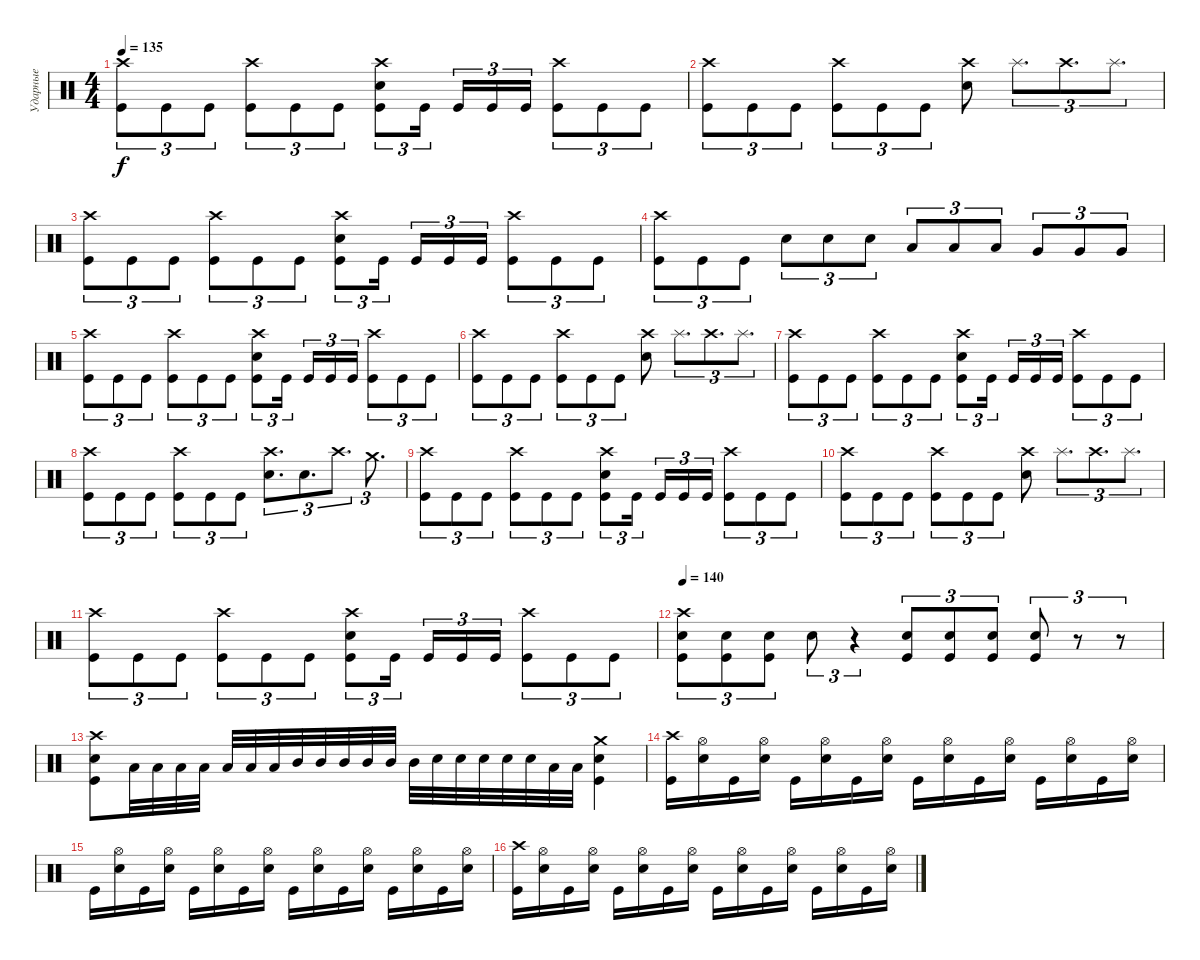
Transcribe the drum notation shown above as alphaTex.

\track ("Ударные" "Ударные") {instrument percussion}
\staff {score}
\articulation defaults
\ts (4 4)
\tempo 135
\clef neutral
\ks c
("Crash high (hit)" "Kick (hit)").8{tu (3 2) dy f} "Kick (hit)".8{tu (3 2)} "Kick (hit)".8{tu (3 2)} ("Crash high (hit)" "Kick (hit)").8{tu (3 2)} "Kick (hit)".8{tu (3 2)} "Kick (hit)".8{tu (3 2)} ("Crash high (hit)" "Snare (hit) 2" "Kick (hit)").8{tu (3 2)} "Kick (hit)".16{tu (3 2) beam splitsecondary} "Kick (hit)".16{tu (3 2)} "Kick (hit)".16{tu (3 2)} "Kick (hit)".16{tu (3 2)} ("Kick (hit)" "Crash high (hit)").8{tu (3 2)} "Kick (hit)".8{tu (3 2)} "Kick (hit)".8{tu (3 2)} |
("Crash high (hit)" "Kick (hit)").8{tu (3 2)} "Kick (hit)".8{tu (3 2)} "Kick (hit)".8{tu (3 2)} ("Crash high (hit)" "Kick (hit)").8{tu (3 2)} "Kick (hit)".8{tu (3 2)} "Kick (hit)".8{tu (3 2)} ("Crash high (hit)" "Snare (hit) 2").8 "Splash (hit)".8{d tu (3 2)} "Crash high (hit)".8{d tu (3 2)} "Splash (hit)".8{d tu (3 2)} |
("Crash high (hit)" "Kick (hit)").8{tu (3 2)} "Kick (hit)".8{tu (3 2)} "Kick (hit)".8{tu (3 2)} ("Crash high (hit)" "Kick (hit)").8{tu (3 2)} "Kick (hit)".8{tu (3 2)} "Kick (hit)".8{tu (3 2)} ("Crash high (hit)" "Snare (hit) 2" "Kick (hit)").8{tu (3 2)} "Kick (hit)".16{tu (3 2) beam splitsecondary} "Kick (hit)".16{tu (3 2)} "Kick (hit)".16{tu (3 2)} "Kick (hit)".16{tu (3 2)} ("Kick (hit)" "Crash high (hit)").8{tu (3 2)} "Kick (hit)".8{tu (3 2)} "Kick (hit)".8{tu (3 2)} |
("Crash high (hit)" "Kick (hit)").8{tu (3 2)} "Kick (hit)".8{tu (3 2)} "Kick (hit)".8{tu (3 2)} "Snare (hit) 2".8{tu (3 2)} "Snare (hit) 2".8{tu (3 2)} "Snare (hit) 2".8{tu (3 2)} "Low Tom (hit)".8{tu (3 2)} "Low Tom (hit)".8{tu (3 2)} "Low Tom (hit)".8{tu (3 2)} "Very Low Tom (hit)".8{tu (3 2)} "Very Low Tom (hit)".8{tu (3 2)} "Very Low Tom (hit)".8{tu (3 2)} |
("Crash high (hit)" "Kick (hit)").8{tu (3 2)} "Kick (hit)".8{tu (3 2)} "Kick (hit)".8{tu (3 2)} ("Crash high (hit)" "Kick (hit)").8{tu (3 2)} "Kick (hit)".8{tu (3 2)} "Kick (hit)".8{tu (3 2)} ("Crash high (hit)" "Snare (hit) 2" "Kick (hit)").8{tu (3 2)} "Kick (hit)".16{tu (3 2) beam splitsecondary} "Kick (hit)".16{tu (3 2)} "Kick (hit)".16{tu (3 2)} "Kick (hit)".16{tu (3 2)} ("Kick (hit)" "Crash high (hit)").8{tu (3 2)} "Kick (hit)".8{tu (3 2)} "Kick (hit)".8{tu (3 2)} |
("Crash high (hit)" "Kick (hit)").8{tu (3 2)} "Kick (hit)".8{tu (3 2)} "Kick (hit)".8{tu (3 2)} ("Crash high (hit)" "Kick (hit)").8{tu (3 2)} "Kick (hit)".8{tu (3 2)} "Kick (hit)".8{tu (3 2)} ("Crash high (hit)" "Snare (hit) 2").8 "Splash (hit)".8{d tu (3 2)} "Crash high (hit)".8{d tu (3 2)} "Splash (hit)".8{d tu (3 2)} |
("Crash high (hit)" "Kick (hit)").8{tu (3 2)} "Kick (hit)".8{tu (3 2)} "Kick (hit)".8{tu (3 2)} ("Crash high (hit)" "Kick (hit)").8{tu (3 2)} "Kick (hit)".8{tu (3 2)} "Kick (hit)".8{tu (3 2)} ("Crash high (hit)" "Snare (hit) 2" "Kick (hit)").8{tu (3 2)} "Kick (hit)".16{tu (3 2) beam splitsecondary} "Kick (hit)".16{tu (3 2)} "Kick (hit)".16{tu (3 2)} "Kick (hit)".16{tu (3 2)} ("Kick (hit)" "Crash high (hit)").8{tu (3 2)} "Kick (hit)".8{tu (3 2)} "Kick (hit)".8{tu (3 2)} |
("Crash high (hit)" "Kick (hit)").8{tu (3 2)} "Kick (hit)".8{tu (3 2)} "Kick (hit)".8{tu (3 2)} ("Crash high (hit)" "Kick (hit)").8{tu (3 2)} "Kick (hit)".8{tu (3 2)} "Kick (hit)".8{tu (3 2)} ("Crash high (hit)" "Snare (hit) 2").8{d tu (3 2)} "Snare (hit) 2".8{d tu (3 2)} "Crash high (hit)".8{d tu (3 2)} "Crash medium (hit)".8{d tu (3 2)} |
("Crash high (hit)" "Kick (hit)").8{tu (3 2)} "Kick (hit)".8{tu (3 2)} "Kick (hit)".8{tu (3 2)} ("Crash high (hit)" "Kick (hit)").8{tu (3 2)} "Kick (hit)".8{tu (3 2)} "Kick (hit)".8{tu (3 2)} ("Crash high (hit)" "Snare (hit) 2" "Kick (hit)").8{tu (3 2)} "Kick (hit)".16{tu (3 2) beam splitsecondary} "Kick (hit)".16{tu (3 2)} "Kick (hit)".16{tu (3 2)} "Kick (hit)".16{tu (3 2)} ("Kick (hit)" "Crash high (hit)").8{tu (3 2)} "Kick (hit)".8{tu (3 2)} "Kick (hit)".8{tu (3 2)} |
("Crash high (hit)" "Kick (hit)").8{tu (3 2)} "Kick (hit)".8{tu (3 2)} "Kick (hit)".8{tu (3 2)} ("Crash high (hit)" "Kick (hit)").8{tu (3 2)} "Kick (hit)".8{tu (3 2)} "Kick (hit)".8{tu (3 2)} ("Crash high (hit)" "Snare (hit) 2").8 "Splash (hit)".8{d tu (3 2)} "Crash high (hit)".8{d tu (3 2)} "Splash (hit)".8{d tu (3 2)} |
("Crash high (hit)" "Kick (hit)").8{tu (3 2)} "Kick (hit)".8{tu (3 2)} "Kick (hit)".8{tu (3 2)} ("Crash high (hit)" "Kick (hit)").8{tu (3 2)} "Kick (hit)".8{tu (3 2)} "Kick (hit)".8{tu (3 2)} ("Crash high (hit)" "Snare (hit) 2" "Kick (hit)").8{tu (3 2)} "Kick (hit)".16{tu (3 2) beam splitsecondary} "Kick (hit)".16{tu (3 2)} "Kick (hit)".16{tu (3 2)} "Kick (hit)".16{tu (3 2)} ("Kick (hit)" "Crash high (hit)").8{tu (3 2)} "Kick (hit)".8{tu (3 2)} "Kick (hit)".8{tu (3 2)} |
\tempo 140
("Crash high (hit)" "Snare (hit) 2" "Kick (hit)").8{tu (3 2)} ("Snare (hit) 2" "Kick (hit)").8{tu (3 2)} ("Snare (hit) 2" "Kick (hit)").8{tu (3 2)} "Snare (hit) 2".8{tu (3 2)} r.4{tu (3 2)} ("Snare (hit) 2" "Kick (hit)").8{tu (3 2)} ("Snare (hit) 2" "Kick (hit)").8{tu (3 2)} ("Snare (hit) 2" "Kick (hit)").8{tu (3 2)} ("Snare (hit) 2" "Kick (hit)").8{tu (3 2)} r.8{tu (3 2)} r.8{tu (3 2)} |
("Kick (hit)" "Snare (hit) 2" "Crash high (hit)").8 "Low Tom (hit)".32 "Low Tom (hit)".32 "Low Tom (hit)".32 "Low Tom (hit)".32 "Low Tom (hit)".32 "Low Tom (hit)".32 "Low Tom (hit)".32 "Mid Tom (hit)".32 "Mid Tom (hit)".32 "Mid Tom (hit)".32 "Mid Tom (hit)".32 "Mid Tom (hit)".32 "Mid Tom (hit)".32 "Snare (hit) 2".32 "Snare (hit) 2".32 "Snare (hit) 2".32 "Snare (hit) 2".32 "Snare (hit) 2".32 "Low Tom (hit)".32 "Low Tom (hit)".32 ("Crash medium (hit)" "Snare (hit) 2" "Kick (hit)").4 |
("Kick (hit)" "Crash high (hit)").16 ("Snare (hit) 2" "Hi-Hat (open)").16 "Kick (hit)".16 ("Snare (hit) 2" "Hi-Hat (open)").16 "Kick (hit)".16 ("Snare (hit) 2" "Hi-Hat (open)").16 "Kick (hit)".16 ("Snare (hit) 2" "Hi-Hat (open)").16 "Kick (hit)".16 ("Snare (hit) 2" "Hi-Hat (open)").16 "Kick (hit)".16 ("Snare (hit) 2" "Hi-Hat (open)").16 "Kick (hit)".16 ("Snare (hit) 2" "Hi-Hat (open)").16 "Kick (hit)".16 ("Snare (hit) 2" "Hi-Hat (open)").16 |
"Kick (hit)".16 ("Snare (hit) 2" "Hi-Hat (open)").16 "Kick (hit)".16 ("Snare (hit) 2" "Hi-Hat (open)").16 "Kick (hit)".16 ("Snare (hit) 2" "Hi-Hat (open)").16 "Kick (hit)".16 ("Snare (hit) 2" "Hi-Hat (open)").16 "Kick (hit)".16 ("Snare (hit) 2" "Hi-Hat (open)").16 "Kick (hit)".16 ("Snare (hit) 2" "Hi-Hat (open)").16 "Kick (hit)".16 ("Snare (hit) 2" "Hi-Hat (open)").16 "Kick (hit)".16 ("Snare (hit) 2" "Hi-Hat (open)").16 |
("Kick (hit)" "Crash high (hit)").16 ("Snare (hit) 2" "Hi-Hat (open)").16 "Kick (hit)".16 ("Snare (hit) 2" "Hi-Hat (open)").16 "Kick (hit)".16 ("Snare (hit) 2" "Hi-Hat (open)").16 "Kick (hit)".16 ("Snare (hit) 2" "Hi-Hat (open)").16 "Kick (hit)".16 ("Snare (hit) 2" "Hi-Hat (open)").16 "Kick (hit)".16 ("Snare (hit) 2" "Hi-Hat (open)").16 "Kick (hit)".16 ("Snare (hit) 2" "Hi-Hat (open)").16 "Kick (hit)".16 ("Snare (hit) 2" "Hi-Hat (open)").16
